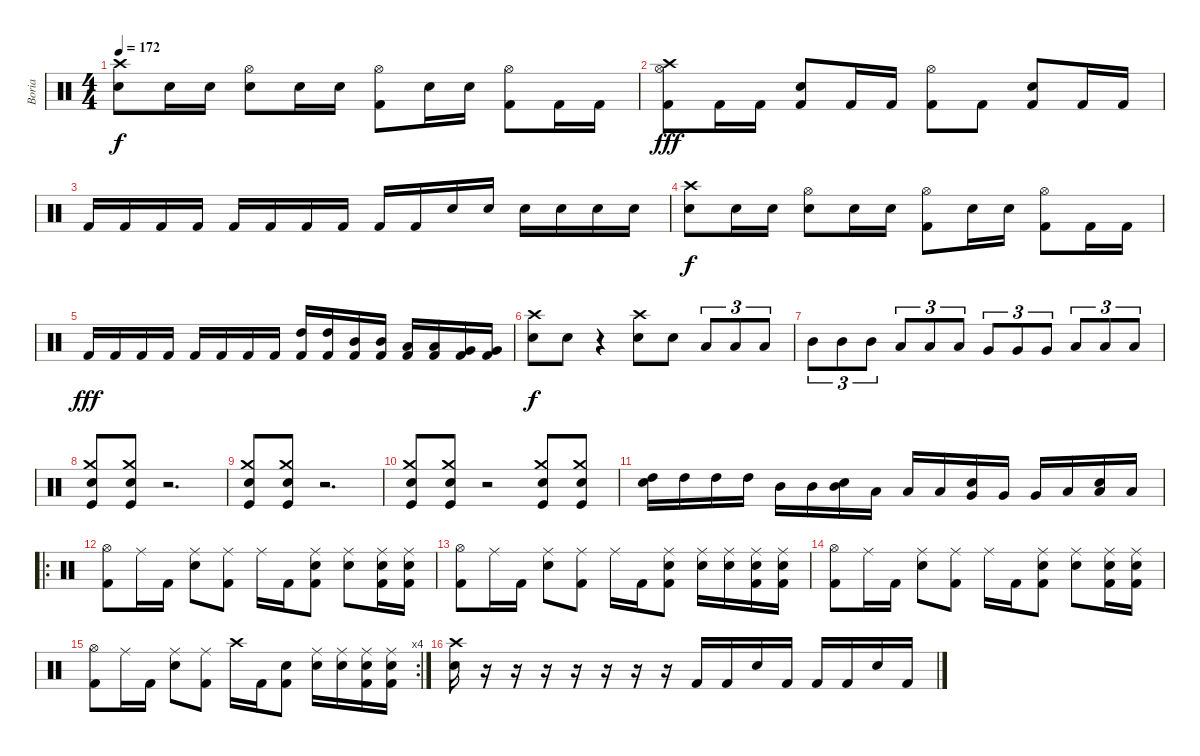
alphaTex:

\track ("Boria" "Boria") {instrument percussion}
\staff {score}
\articulation defaults
\ts (4 4)
\tempo 172
\clef neutral
\ks c
("Crash high (hit)" "Snare (hit) 2").8{dy f} "Snare (hit) 2".16 "Snare (hit) 2".16 ("Hi-Hat (open)" "Snare (hit) 2").8 "Snare (hit) 2".16 "Snare (hit) 2".16 ("Hi-Hat (open)" "Kick (hit) 2").8 "Snare (hit) 2".16 "Snare (hit) 2".16 ("Hi-Hat (open)" "Kick (hit) 2").8 "Kick (hit) 2".16 "Kick (hit) 2".16 |
("Crash high (hit)" "Hi-Hat (open)" "Kick (hit) 2").8{dy fff} "Kick (hit) 2".16 "Kick (hit) 2".16 ("Snare (hit) 2" "Kick (hit) 2").8 "Kick (hit) 2".16 "Kick (hit) 2".16 ("Hi-Hat (open)" "Kick (hit) 2").8 "Kick (hit) 2".8 ("Snare (hit) 2" "Kick (hit) 2").8 "Kick (hit) 2".16 "Kick (hit) 2".16 |
"Kick (hit) 2".16 "Kick (hit) 2".16 "Kick (hit) 2".16 "Kick (hit) 2".16 "Kick (hit) 2".16 "Kick (hit) 2".16 "Kick (hit) 2".16 "Kick (hit) 2".16 "Kick (hit) 2".16 "Kick (hit) 2".16 "Snare (hit) 2".16 "Snare (hit) 2".16 "Snare (hit) 2".16 "Snare (hit) 2".16 "Snare (hit) 2".16 "Snare (hit) 2".16 |
("Crash high (hit)" "Snare (hit) 2").8{dy f} "Snare (hit) 2".16 "Snare (hit) 2".16 ("Hi-Hat (open)" "Snare (hit) 2").8 "Snare (hit) 2".16 "Snare (hit) 2".16 ("Hi-Hat (open)" "Kick (hit) 2").8 "Snare (hit) 2".16 "Snare (hit) 2".16 ("Hi-Hat (open)" "Kick (hit) 2").8 "Kick (hit) 2".16 "Kick (hit) 2".16 |
"Kick (hit) 2".16{dy fff} "Kick (hit) 2".16 "Kick (hit) 2".16 "Kick (hit) 2".16 "Kick (hit) 2".16 "Kick (hit) 2".16 "Kick (hit) 2".16 "Kick (hit) 2".16 ("High Tom (hit)" "Kick (hit) 2").16 ("High Tom (hit)" "Kick (hit) 2").16 ("Mid Tom (hit)" "Kick (hit) 2").16 ("Mid Tom (hit)" "Kick (hit) 2").16 ("Low Tom (hit)" "Kick (hit) 2").16 ("Low Tom (hit)" "Kick (hit) 2").16 ("Very Low Tom (hit)" "Kick (hit) 2").16 ("Very Low Tom (hit)" "Kick (hit) 2").16 |
("Crash high (hit)" "Snare (hit) 2").8{dy f} "Snare (hit) 2".8 r.4 ("Crash high (hit)" "Snare (hit) 2").8 "Snare (hit) 2".8 "Low Tom (hit)".8{tu (3 2)} "Low Tom (hit)".8{tu (3 2)} "Low Tom (hit)".8{tu (3 2)} |
"Mid Tom (hit)".8{tu (3 2)} "Mid Tom (hit)".8{tu (3 2)} "Mid Tom (hit)".8{tu (3 2)} "Low Tom (hit)".8{tu (3 2)} "Low Tom (hit)".8{tu (3 2)} "Low Tom (hit)".8{tu (3 2)} "Very Low Tom (hit)".8{tu (3 2)} "Very Low Tom (hit)".8{tu (3 2)} "Very Low Tom (hit)".8{tu (3 2)} "Low Floor Tom (hit)".8{tu (3 2)} "Low Floor Tom (hit)".8{tu (3 2)} "Low Floor Tom (hit)".8{tu (3 2)} |
("Crash medium (hit)" "Kick (hit)" "Snare (hit) 2").8 ("Crash medium (hit)" "Kick (hit)" "Snare (hit) 2").8 r.2{d} |
("Crash medium (hit)" "Kick (hit)" "Snare (hit) 2").8 ("Crash medium (hit)" "Kick (hit)" "Snare (hit) 2").8 r.2{d} |
("Crash medium (hit)" "Kick (hit)" "Snare (hit) 2").8 ("Crash medium (hit)" "Kick (hit)" "Snare (hit) 2").8 r.2 ("Crash medium (hit)" "Kick (hit)" "Snare (hit) 2").8 ("Crash medium (hit)" "Kick (hit)" "Snare (hit) 2").8 |
("High Tom (hit)" "Electric Snare (hit)").16 "High Tom (hit)".16 "High Tom (hit)".16 "High Tom (hit)".16 "Mid Tom (hit)".16 "Mid Tom (hit)".16 ("Mid Tom (hit)" "Electric Snare (hit)").16 "Low Tom (hit)".16 "Low Tom (hit)".16 "Low Tom (hit)".16 ("Very Low Tom (hit)" "Electric Snare (hit)").16 "Very Low Tom (hit)".16 "Very Low Tom (hit)".16 "Low Floor Tom (hit)".16 ("Low Floor Tom (hit)" "Electric Snare (hit)").16 "Low Floor Tom (hit)".16 |
\ro
("Hi-Hat (open)" "Kick (hit) 2").8 "Ride (middle)".16 "Kick (hit) 2".16 ("Ride (middle)" "Electric Snare (hit)").8 ("Ride (middle)" "Kick (hit) 2").8 "Ride (middle)".16 "Kick (hit) 2".16 ("Ride (middle)" "Electric Snare (hit)" "Kick (hit) 2").8 ("Ride (middle)" "Electric Snare (hit)").8 ("Ride (middle)" "Electric Snare (hit)" "Kick (hit) 2").16 ("Ride (middle)" "Electric Snare (hit)" "Kick (hit) 2").16 |
("Hi-Hat (open)" "Kick (hit) 2").8 "Ride (middle)".16 "Kick (hit) 2".16 ("Ride (middle)" "Electric Snare (hit)").8 ("Ride (middle)" "Kick (hit) 2").8 "Ride (middle)".16 "Kick (hit) 2".16 ("Ride (middle)" "Electric Snare (hit)" "Kick (hit) 2").8 ("Ride (middle)" "Electric Snare (hit)").16 ("Ride (middle)" "Electric Snare (hit)").16 ("Ride (middle)" "Electric Snare (hit)" "Kick (hit) 2").16 ("Ride (middle)" "Electric Snare (hit)" "Kick (hit) 2").16 |
("Hi-Hat (open)" "Kick (hit) 2").8 "Ride (middle)".16 "Kick (hit) 2".16 ("Ride (middle)" "Electric Snare (hit)").8 ("Ride (middle)" "Kick (hit) 2").8 "Ride (middle)".16 "Kick (hit) 2".16 ("Ride (middle)" "Electric Snare (hit)" "Kick (hit) 2").8 ("Ride (middle)" "Electric Snare (hit)").8 ("Ride (middle)" "Electric Snare (hit)" "Kick (hit) 2").16 ("Ride (middle)" "Electric Snare (hit)" "Kick (hit) 2").16 |
\rc 4
("Hi-Hat (open)" "Kick (hit) 2").8 "Ride (middle)".16 "Kick (hit) 2".16 ("Ride (middle)" "Electric Snare (hit)").8 ("Ride (middle)" "Kick (hit) 2").8 "Crash high (hit)".16 "Kick (hit) 2".16 ("Electric Snare (hit)" "Kick (hit) 2").8 ("Ride (middle)" "Electric Snare (hit)").16 ("Ride (middle)" "Electric Snare (hit)").16 ("Ride (middle)" "Electric Snare (hit)" "Kick (hit) 2").16 ("Ride (middle)" "Electric Snare (hit)" "Kick (hit) 2").16 |
("Crash high (hit)" "Snare (hit) 2").16 r.16 r.16 r.16 r.16 r.16 r.16 r.16 "Kick (hit) 2".16 "Kick (hit) 2".16 "Electric Snare (hit)".16 "Kick (hit) 2".16 "Kick (hit) 2".16 "Kick (hit) 2".16 "Electric Snare (hit)".16 "Kick (hit) 2".16
